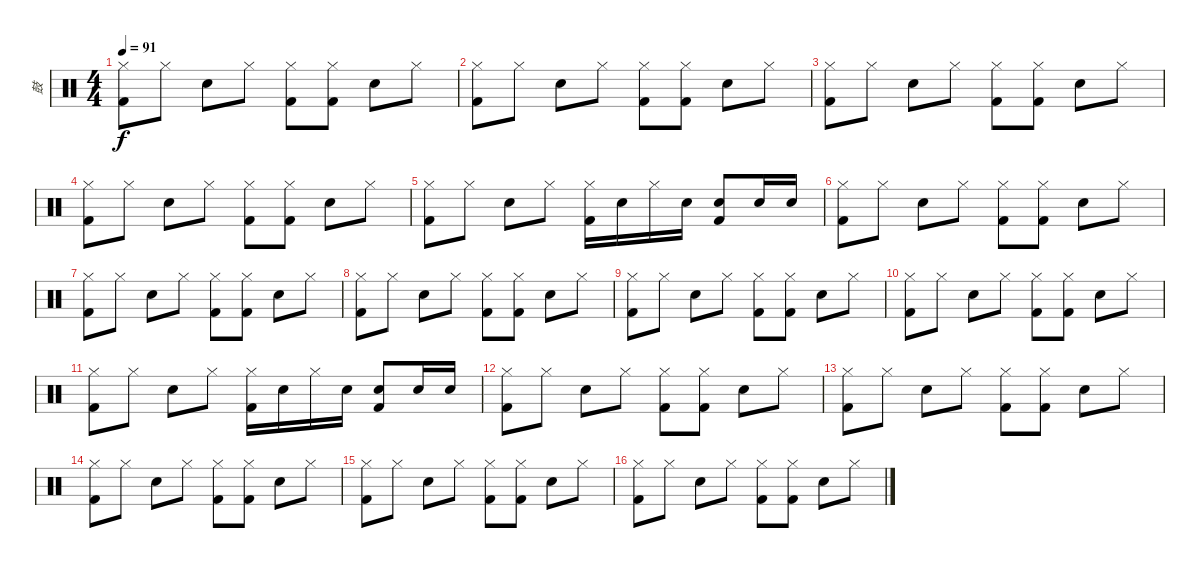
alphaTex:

\track ("鼓" "鼓") {instrument percussion}
\staff {score}
\articulation defaults
\ts (4 4)
\tempo 91
\clef neutral
\ks c
("Hi-Hat (closed)" "Kick (hit) 2").8{dy f} "Hi-Hat (closed)".8 "Snare (hit) 2".8 "Hi-Hat (closed)".8 ("Hi-Hat (closed)" "Kick (hit) 2").8 ("Hi-Hat (closed)" "Kick (hit) 2").8 "Snare (hit) 2".8 "Hi-Hat (closed)".8 |
("Hi-Hat (closed)" "Kick (hit) 2").8 "Hi-Hat (closed)".8 "Snare (hit) 2".8 "Hi-Hat (closed)".8 ("Hi-Hat (closed)" "Kick (hit) 2").8 ("Hi-Hat (closed)" "Kick (hit) 2").8 "Snare (hit) 2".8 "Hi-Hat (closed)".8 |
("Hi-Hat (closed)" "Kick (hit) 2").8 "Hi-Hat (closed)".8 "Snare (hit) 2".8 "Hi-Hat (closed)".8 ("Hi-Hat (closed)" "Kick (hit) 2").8 ("Hi-Hat (closed)" "Kick (hit) 2").8 "Snare (hit) 2".8 "Hi-Hat (closed)".8 |
("Hi-Hat (closed)" "Kick (hit) 2").8 "Hi-Hat (closed)".8 "Snare (hit) 2".8 "Hi-Hat (closed)".8 ("Hi-Hat (closed)" "Kick (hit) 2").8 ("Hi-Hat (closed)" "Kick (hit) 2").8 "Snare (hit) 2".8 "Hi-Hat (closed)".8 |
("Hi-Hat (closed)" "Kick (hit) 2").8 "Hi-Hat (closed)".8 "Snare (hit) 2".8 "Hi-Hat (closed)".8 ("Hi-Hat (closed)" "Kick (hit) 2").16 "Snare (hit) 2".16 "Hi-Hat (closed)".16 "Snare (hit) 2".16 ("Snare (hit) 2" "Kick (hit) 2").8 "Snare (hit) 2".16 "Snare (hit) 2".16 |
("Hi-Hat (closed)" "Kick (hit) 2").8 "Hi-Hat (closed)".8 "Snare (hit) 2".8 "Hi-Hat (closed)".8 ("Hi-Hat (closed)" "Kick (hit) 2").8 ("Hi-Hat (closed)" "Kick (hit) 2").8 "Snare (hit) 2".8 "Hi-Hat (closed)".8 |
("Hi-Hat (closed)" "Kick (hit) 2").8 "Hi-Hat (closed)".8 "Snare (hit) 2".8 "Hi-Hat (closed)".8 ("Hi-Hat (closed)" "Kick (hit) 2").8 ("Hi-Hat (closed)" "Kick (hit) 2").8 "Snare (hit) 2".8 "Hi-Hat (closed)".8 |
("Hi-Hat (closed)" "Kick (hit) 2").8 "Hi-Hat (closed)".8 "Snare (hit) 2".8 "Hi-Hat (closed)".8 ("Hi-Hat (closed)" "Kick (hit) 2").8 ("Hi-Hat (closed)" "Kick (hit) 2").8 "Snare (hit) 2".8 "Hi-Hat (closed)".8 |
("Hi-Hat (closed)" "Kick (hit) 2").8 "Hi-Hat (closed)".8 "Snare (hit) 2".8 "Hi-Hat (closed)".8 ("Hi-Hat (closed)" "Kick (hit) 2").8 ("Hi-Hat (closed)" "Kick (hit) 2").8 "Snare (hit) 2".8 "Hi-Hat (closed)".8 |
("Hi-Hat (closed)" "Kick (hit) 2").8 "Hi-Hat (closed)".8 "Snare (hit) 2".8 "Hi-Hat (closed)".8 ("Hi-Hat (closed)" "Kick (hit) 2").8 ("Hi-Hat (closed)" "Kick (hit) 2").8 "Snare (hit) 2".8 "Hi-Hat (closed)".8 |
("Hi-Hat (closed)" "Kick (hit) 2").8 "Hi-Hat (closed)".8 "Snare (hit) 2".8 "Hi-Hat (closed)".8 ("Hi-Hat (closed)" "Kick (hit) 2").16 "Snare (hit) 2".16 "Hi-Hat (closed)".16 "Snare (hit) 2".16 ("Snare (hit) 2" "Kick (hit) 2").8 "Snare (hit) 2".16 "Snare (hit) 2".16 |
("Hi-Hat (closed)" "Kick (hit) 2").8 "Hi-Hat (closed)".8 "Snare (hit) 2".8 "Hi-Hat (closed)".8 ("Hi-Hat (closed)" "Kick (hit) 2").8 ("Hi-Hat (closed)" "Kick (hit) 2").8 "Snare (hit) 2".8 "Hi-Hat (closed)".8 |
("Hi-Hat (closed)" "Kick (hit) 2").8 "Hi-Hat (closed)".8 "Snare (hit) 2".8 "Hi-Hat (closed)".8 ("Hi-Hat (closed)" "Kick (hit) 2").8 ("Hi-Hat (closed)" "Kick (hit) 2").8 "Snare (hit) 2".8 "Hi-Hat (closed)".8 |
("Hi-Hat (closed)" "Kick (hit) 2").8 "Hi-Hat (closed)".8 "Snare (hit) 2".8 "Hi-Hat (closed)".8 ("Hi-Hat (closed)" "Kick (hit) 2").8 ("Hi-Hat (closed)" "Kick (hit) 2").8 "Snare (hit) 2".8 "Hi-Hat (closed)".8 |
("Hi-Hat (closed)" "Kick (hit) 2").8 "Hi-Hat (closed)".8 "Snare (hit) 2".8 "Hi-Hat (closed)".8 ("Hi-Hat (closed)" "Kick (hit) 2").8 ("Hi-Hat (closed)" "Kick (hit) 2").8 "Snare (hit) 2".8 "Hi-Hat (closed)".8 |
("Hi-Hat (closed)" "Kick (hit) 2").8 "Hi-Hat (closed)".8 "Snare (hit) 2".8 "Hi-Hat (closed)".8 ("Hi-Hat (closed)" "Kick (hit) 2").8 ("Hi-Hat (closed)" "Kick (hit) 2").8 "Snare (hit) 2".8 "Hi-Hat (closed)".8
